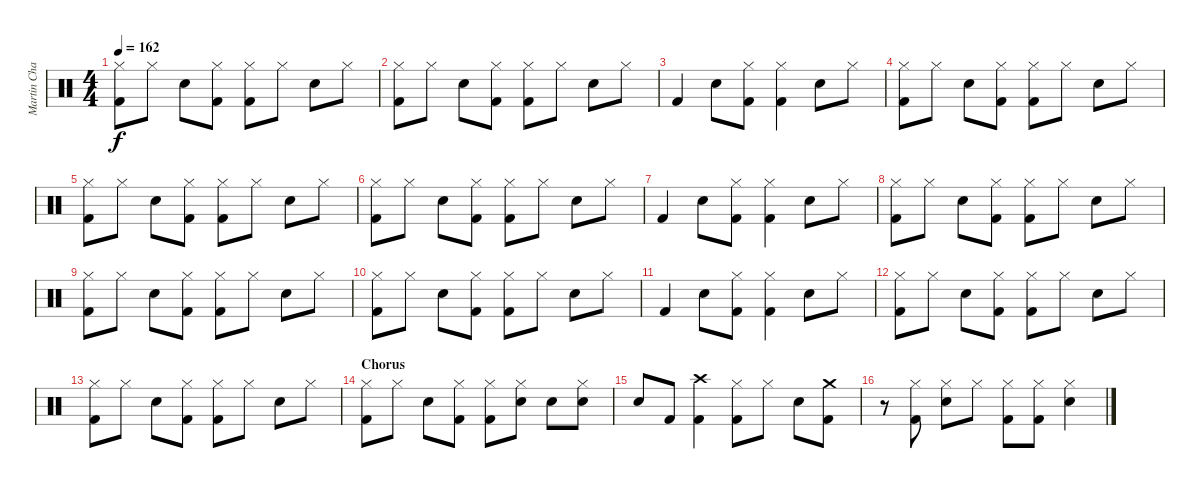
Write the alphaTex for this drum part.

\track ("Martin Chambers" "Martin Cha") {instrument percussion}
\staff {score}
\articulation defaults
\ts (4 4)
\tempo 162
\clef neutral
\ks c
("Hi-Hat (closed)" "Kick (hit) 2").8{dy f} "Hi-Hat (closed)".8 "Snare (hit) 2".8 ("Hi-Hat (closed)" "Kick (hit) 2").8 ("Hi-Hat (closed)" "Kick (hit) 2").8 "Hi-Hat (closed)".8 "Snare (hit) 2".8 "Hi-Hat (closed)".8 |
("Hi-Hat (closed)" "Kick (hit) 2").8 "Hi-Hat (closed)".8 "Snare (hit) 2".8 ("Hi-Hat (closed)" "Kick (hit) 2").8 ("Hi-Hat (closed)" "Kick (hit) 2").8 "Hi-Hat (closed)".8 "Snare (hit) 2".8 "Hi-Hat (closed)".8 |
"Kick (hit) 2".4 "Snare (hit) 2".8 ("Hi-Hat (closed)" "Kick (hit) 2").8 ("Hi-Hat (closed)" "Kick (hit) 2").4 "Snare (hit) 2".8 "Hi-Hat (closed)".8 |
("Hi-Hat (closed)" "Kick (hit) 2").8 "Hi-Hat (closed)".8 "Snare (hit) 2".8 ("Hi-Hat (closed)" "Kick (hit) 2").8 ("Hi-Hat (closed)" "Kick (hit) 2").8 "Hi-Hat (closed)".8 "Snare (hit) 2".8 "Hi-Hat (closed)".8 |
("Hi-Hat (closed)" "Kick (hit) 2").8 "Hi-Hat (closed)".8 "Snare (hit) 2".8 ("Hi-Hat (closed)" "Kick (hit) 2").8 ("Hi-Hat (closed)" "Kick (hit) 2").8 "Hi-Hat (closed)".8 "Snare (hit) 2".8 "Hi-Hat (closed)".8 |
("Hi-Hat (closed)" "Kick (hit) 2").8 "Hi-Hat (closed)".8 "Snare (hit) 2".8 ("Hi-Hat (closed)" "Kick (hit) 2").8 ("Hi-Hat (closed)" "Kick (hit) 2").8 "Hi-Hat (closed)".8 "Snare (hit) 2".8 "Hi-Hat (closed)".8 |
"Kick (hit) 2".4 "Snare (hit) 2".8 ("Hi-Hat (closed)" "Kick (hit) 2").8 ("Hi-Hat (closed)" "Kick (hit) 2").4 "Snare (hit) 2".8 "Hi-Hat (closed)".8 |
("Hi-Hat (closed)" "Kick (hit) 2").8 "Hi-Hat (closed)".8 "Snare (hit) 2".8 ("Hi-Hat (closed)" "Kick (hit) 2").8 ("Hi-Hat (closed)" "Kick (hit) 2").8 "Hi-Hat (closed)".8 "Snare (hit) 2".8 "Hi-Hat (closed)".8 |
("Hi-Hat (closed)" "Kick (hit) 2").8 "Hi-Hat (closed)".8 "Snare (hit) 2".8 ("Hi-Hat (closed)" "Kick (hit) 2").8 ("Hi-Hat (closed)" "Kick (hit) 2").8 "Hi-Hat (closed)".8 "Snare (hit) 2".8 "Hi-Hat (closed)".8 |
("Hi-Hat (closed)" "Kick (hit) 2").8 "Hi-Hat (closed)".8 "Snare (hit) 2".8 ("Hi-Hat (closed)" "Kick (hit) 2").8 ("Hi-Hat (closed)" "Kick (hit) 2").8 "Hi-Hat (closed)".8 "Snare (hit) 2".8 "Hi-Hat (closed)".8 |
"Kick (hit) 2".4 "Snare (hit) 2".8 ("Hi-Hat (closed)" "Kick (hit) 2").8 ("Hi-Hat (closed)" "Kick (hit) 2").4 "Snare (hit) 2".8 "Hi-Hat (closed)".8 |
("Hi-Hat (closed)" "Kick (hit) 2").8 "Hi-Hat (closed)".8 "Snare (hit) 2".8 ("Hi-Hat (closed)" "Kick (hit) 2").8 ("Hi-Hat (closed)" "Kick (hit) 2").8 "Hi-Hat (closed)".8 "Snare (hit) 2".8 "Hi-Hat (closed)".8 |
("Hi-Hat (closed)" "Kick (hit) 2").8 "Hi-Hat (closed)".8 "Snare (hit) 2".8 ("Hi-Hat (closed)" "Kick (hit) 2").8 ("Hi-Hat (closed)" "Kick (hit) 2").8 "Hi-Hat (closed)".8 "Snare (hit) 2".8 "Hi-Hat (closed)".8 |
\section ("" "Chorus")
("Hi-Hat (closed)" "Kick (hit) 2").8 "Hi-Hat (closed)".8 "Snare (hit) 2".8 ("Hi-Hat (closed)" "Kick (hit) 2").8 ("Hi-Hat (closed)" "Kick (hit) 2").8 ("Hi-Hat (closed)" "Snare (hit) 2").8 "Snare (hit) 2".8 ("Hi-Hat (closed)" "Snare (hit) 2").8 |
"Snare (hit) 2".8 "Kick (hit) 2".8 ("Crash high (hit)" "Kick (hit) 2").4 ("Hi-Hat (closed)" "Kick (hit) 2").8 "Hi-Hat (closed)".8 "Snare (hit) 2".8 ("Crash medium (hit)" "Kick (hit) 2").8 |
r.8 ("Hi-Hat (closed)" "Kick (hit) 2").8 ("Hi-Hat (closed)" "Snare (hit) 2").8 "Hi-Hat (closed)".8 ("Hi-Hat (closed)" "Kick (hit) 2").8 ("Hi-Hat (closed)" "Kick (hit) 2").8 ("Hi-Hat (closed)" "Snare (hit) 2").4
